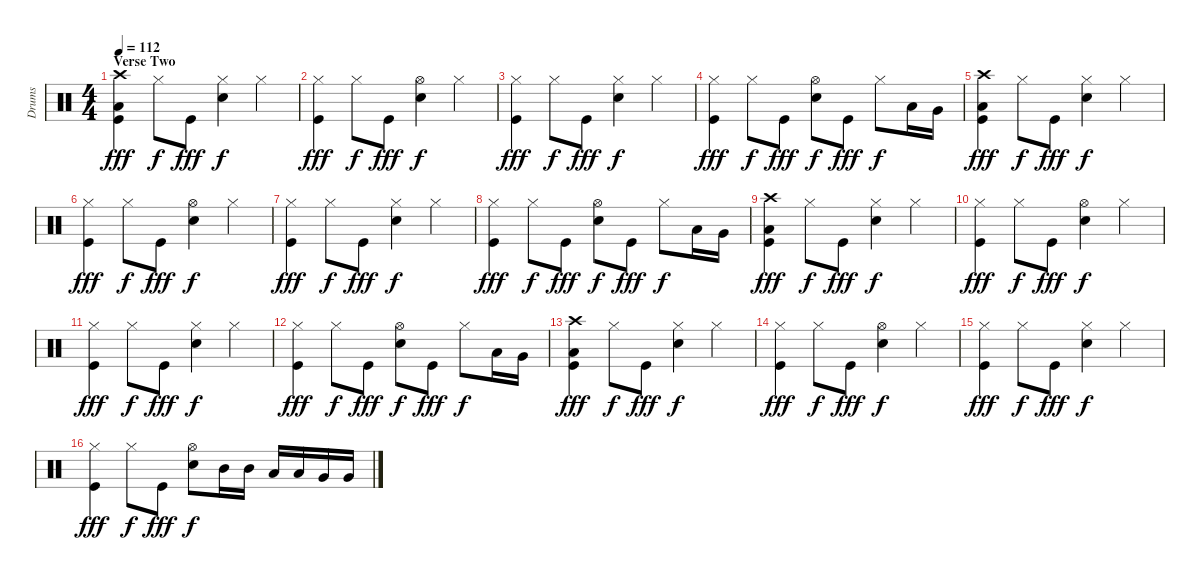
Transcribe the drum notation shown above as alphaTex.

\track ("Drums" "Drums") {instrument percussion}
\staff {score}
\articulation defaults
\ts (4 4)
\section ("" "Verse Two")
\tempo 112
\clef neutral
\ks c
("Crash high (hit)" "Low Floor Tom (hit)" "Kick (hit)").4{dy fff} "Hi-Hat (closed)".8{dy f} "Kick (hit)".8{dy fff} ("Hi-Hat (closed)" "Snare (hit) 2").4{dy f} "Hi-Hat (closed)".4 |
("Hi-Hat (closed)" "Kick (hit)").4{dy fff} "Hi-Hat (closed)".8{dy f} "Kick (hit)".8{dy fff} ("Hi-Hat (open)" "Snare (hit) 2").4{dy f} "Hi-Hat (closed)".4 |
("Hi-Hat (closed)" "Kick (hit)").4{dy fff} "Hi-Hat (closed)".8{dy f} "Kick (hit)".8{dy fff} ("Hi-Hat (closed)" "Snare (hit) 2").4{dy f} "Hi-Hat (closed)".4 |
("Hi-Hat (closed)" "Kick (hit)").4{dy fff} "Hi-Hat (closed)".8{dy f} "Kick (hit)".8{dy fff} ("Hi-Hat (open)" "Snare (hit) 2").8{dy f} "Kick (hit)".8{dy fff} "Hi-Hat (closed)".8{dy f} "Low Tom (hit)".16 "Very Low Tom (hit)".16 |
("Crash high (hit)" "Low Floor Tom (hit)" "Kick (hit)").4{dy fff} "Hi-Hat (closed)".8{dy f} "Kick (hit)".8{dy fff} ("Hi-Hat (closed)" "Snare (hit) 2").4{dy f} "Hi-Hat (closed)".4 |
("Hi-Hat (closed)" "Kick (hit)").4{dy fff} "Hi-Hat (closed)".8{dy f} "Kick (hit)".8{dy fff} ("Hi-Hat (open)" "Snare (hit) 2").4{dy f} "Hi-Hat (closed)".4 |
("Hi-Hat (closed)" "Kick (hit)").4{dy fff} "Hi-Hat (closed)".8{dy f} "Kick (hit)".8{dy fff} ("Hi-Hat (closed)" "Snare (hit) 2").4{dy f} "Hi-Hat (closed)".4 |
("Hi-Hat (closed)" "Kick (hit)").4{dy fff} "Hi-Hat (closed)".8{dy f} "Kick (hit)".8{dy fff} ("Hi-Hat (open)" "Snare (hit) 2").8{dy f} "Kick (hit)".8{dy fff} "Hi-Hat (closed)".8{dy f} "Low Tom (hit)".16 "Very Low Tom (hit)".16 |
("Crash high (hit)" "Low Floor Tom (hit)" "Kick (hit)").4{dy fff} "Hi-Hat (closed)".8{dy f} "Kick (hit)".8{dy fff} ("Hi-Hat (closed)" "Snare (hit) 2").4{dy f} "Hi-Hat (closed)".4 |
("Hi-Hat (closed)" "Kick (hit)").4{dy fff} "Hi-Hat (closed)".8{dy f} "Kick (hit)".8{dy fff} ("Hi-Hat (open)" "Snare (hit) 2").4{dy f} "Hi-Hat (closed)".4 |
("Hi-Hat (closed)" "Kick (hit)").4{dy fff} "Hi-Hat (closed)".8{dy f} "Kick (hit)".8{dy fff} ("Hi-Hat (closed)" "Snare (hit) 2").4{dy f} "Hi-Hat (closed)".4 |
("Hi-Hat (closed)" "Kick (hit)").4{dy fff} "Hi-Hat (closed)".8{dy f} "Kick (hit)".8{dy fff} ("Hi-Hat (open)" "Snare (hit) 2").8{dy f} "Kick (hit)".8{dy fff} "Hi-Hat (closed)".8{dy f} "Low Tom (hit)".16 "Very Low Tom (hit)".16 |
("Crash high (hit)" "Low Floor Tom (hit)" "Kick (hit)").4{dy fff} "Hi-Hat (closed)".8{dy f} "Kick (hit)".8{dy fff} ("Hi-Hat (closed)" "Snare (hit) 2").4{dy f} "Hi-Hat (closed)".4 |
("Hi-Hat (closed)" "Kick (hit)").4{dy fff} "Hi-Hat (closed)".8{dy f} "Kick (hit)".8{dy fff} ("Hi-Hat (open)" "Snare (hit) 2").4{dy f} "Hi-Hat (closed)".4 |
("Hi-Hat (closed)" "Kick (hit)").4{dy fff} "Hi-Hat (closed)".8{dy f} "Kick (hit)".8{dy fff} ("Hi-Hat (closed)" "Snare (hit) 2").4{dy f} "Hi-Hat (closed)".4 |
("Hi-Hat (closed)" "Kick (hit)").4{dy fff} "Hi-Hat (closed)".8{dy f} "Kick (hit)".8{dy fff} ("Hi-Hat (open)" "Snare (hit) 2").8{dy f} "Mid Tom (hit)".16 "Mid Tom (hit)".16 "Low Tom (hit)".16 "Low Tom (hit)".16 "Very Low Tom (hit)".16 "Very Low Tom (hit)".16
